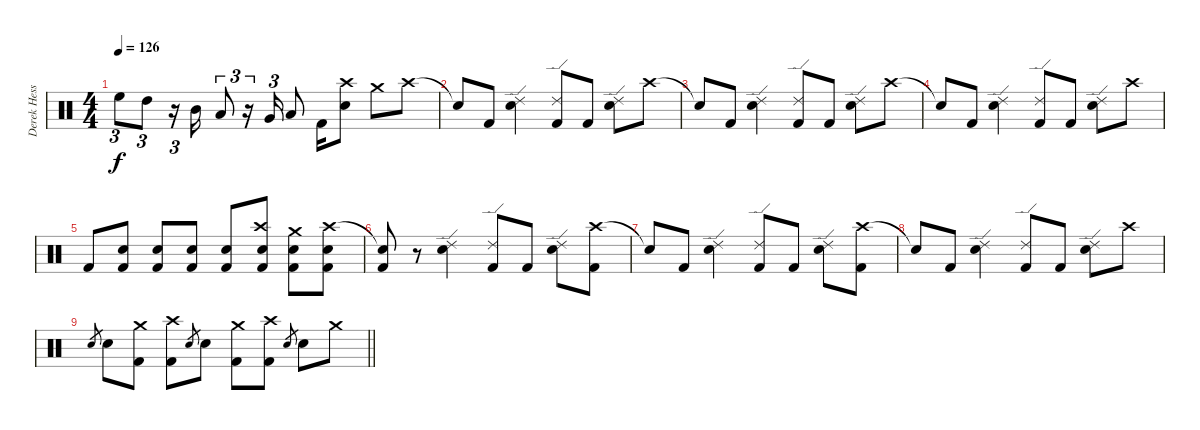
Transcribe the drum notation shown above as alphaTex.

\track ("Derek Hess (Drums and Percussion)" "Derek Hess") {instrument percussion}
\staff {score}
\articulation defaults
\ts (4 4)
\tempo 126
\clef neutral
\ks c "High Floor Tom (hit)".8{tu (3 2) dy f} "High Tom (hit)".8{tu (3 2)}
r.16{tu (3 2)} "Mid Tom (hit)".16 "Low Tom (hit)".8{tu (3 2)} r.16{tu (3 2)} "Very Low Tom (hit)".16{tu (3 2)} "Low Floor Tom (hit)".8 "Kick (hit) 2".16 ("Crash high (hit)" "Electric Snare (hit)").8 "Crash medium (hit)".8 "Crash high (hit)".8 |
"Snare (hit)"{t}.8 "Kick (hit) 2".8 ("Ride (edge) 2" "Electric Snare (hit)").4 ("Ride (edge) 2" "Kick (hit) 2").8 "Kick (hit) 2".8 ("Ride (edge) 2" "Electric Snare (hit)").8 "Crash high (hit)".8 |
"Snare (hit)"{t}.8 "Kick (hit) 2".8 ("Ride (edge) 2" "Electric Snare (hit)").4 ("Ride (edge) 2" "Kick (hit) 2").8 "Kick (hit) 2".8 ("Ride (edge) 2" "Electric Snare (hit)").8 "Crash high (hit)".8 |
"Snare (hit)"{t}.8 "Kick (hit) 2".8 ("Ride (edge) 2" "Electric Snare (hit)").4 ("Ride (edge) 2" "Kick (hit) 2").8 "Kick (hit) 2".8 ("Ride (edge) 2" "Electric Snare (hit)").8 "Crash high (hit)".8 |
"Kick (hit) 2".8 ("Electric Snare (hit)" "Kick (hit) 2").8 ("Electric Snare (hit)" "Kick (hit) 2").8 ("Electric Snare (hit)" "Kick (hit) 2").8 ("Electric Snare (hit)" "Kick (hit) 2").8 ("Crash high (hit)" "Electric Snare (hit)" "Kick (hit) 2").8 ("Crash medium (hit)" "Electric Snare (hit)" "Kick (hit) 2").8 ("Crash high (hit)" "Electric Snare (hit)" "Kick (hit) 2").8 |
("Snare (hit)"{t} "Kick (hit) 2").8 r.8 ("Ride (edge) 2" "Electric Snare (hit)").4 ("Ride (edge) 2" "Kick (hit) 2").8 "Kick (hit) 2".8 ("Ride (edge) 2" "Electric Snare (hit)").8 ("Crash high (hit)" "Kick (hit) 2").8 |
"Snare (hit)"{t}.8 "Kick (hit) 2".8 ("Ride (edge) 2" "Electric Snare (hit)").4 ("Ride (edge) 2" "Kick (hit) 2").8 "Kick (hit) 2".8 ("Ride (edge) 2" "Electric Snare (hit)").8 ("Crash high (hit)" "Kick (hit) 2").8 |
"Snare (hit)"{t}.8 "Kick (hit) 2".8 ("Ride (edge) 2" "Electric Snare (hit)").4 ("Ride (edge) 2" "Kick (hit) 2").8 "Kick (hit) 2".8 ("Ride (edge) 2" "Electric Snare (hit)").8 "Crash high (hit)".8 |
\barLineRight lightlight "Electric Snare (hit)".8{gr} "Electric Snare (hit)".8
("Crash medium (hit)" "Kick (hit) 2").8 ("Crash high (hit)" "Kick (hit) 2").8 "Electric Snare (hit)".8{gr} "Electric Snare (hit)".8 ("Crash medium (hit)" "Kick (hit) 2").8 ("Crash high (hit)" "Kick (hit) 2").8 "Electric Snare (hit)".8{gr} "Electric Snare (hit)".8 "Crash medium (hit)".8
